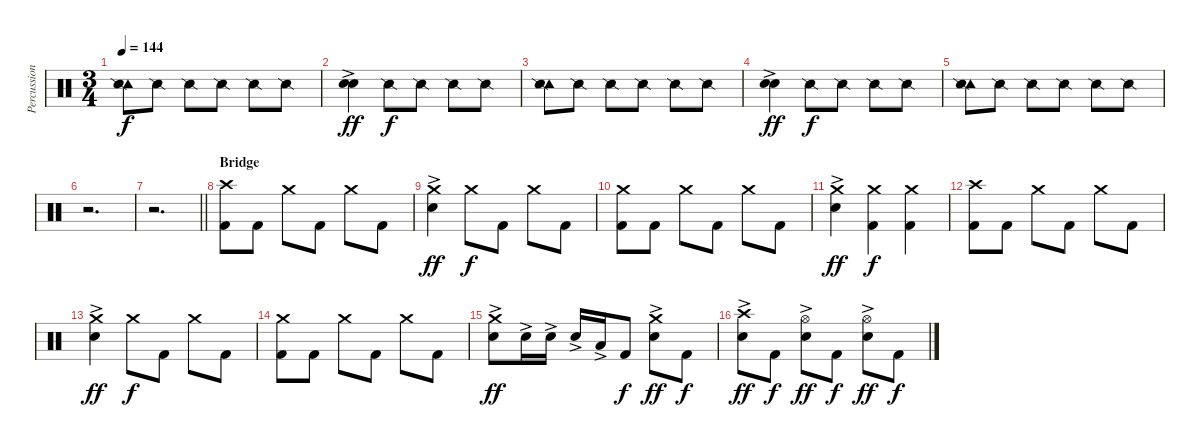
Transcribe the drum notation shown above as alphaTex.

\track ("Percussion" "Percussion") {instrument percussion}
\staff {score}
\articulation defaults
\ts (3 4)
\tempo 144
\clef neutral
\ks c
("Tambourine (hit)" "Snare (side stick) 2").8{dy f} "Snare (side stick) 2".8 "Snare (side stick) 2".8 "Snare (side stick) 2".8 "Snare (side stick) 2".8 "Snare (side stick) 2".8 |
("Electric Snare (hit)"{ac} "Electric Snare (hit)"{ac}).4{bu 120 dy ff} "Snare (side stick) 2".8{dy f} "Snare (side stick) 2".8 "Snare (side stick) 2".8 "Snare (side stick) 2".8 |
("Tambourine (hit)" "Snare (side stick) 2").8 "Snare (side stick) 2".8 "Snare (side stick) 2".8 "Snare (side stick) 2".8 "Snare (side stick) 2".8 "Snare (side stick) 2".8 |
("Electric Snare (hit)"{ac} "Electric Snare (hit)"{ac}).4{bu 120 dy ff} "Snare (side stick) 2".8{dy f} "Snare (side stick) 2".8 "Snare (side stick) 2".8 "Snare (side stick) 2".8 |
("Tambourine (hit)" "Snare (side stick) 2").8 "Snare (side stick) 2".8 "Snare (side stick) 2".8 "Snare (side stick) 2".8 "Snare (side stick) 2".8 "Snare (side stick) 2".8 |
r.2{d} |
\barLineRight lightlight
r.2{d} |
\section ("" "Bridge")
("Crash high (hit)" "Kick (hit) 2").8 "Kick (hit) 2".8 "Crash medium (hit)".8 "Kick (hit) 2".8 "Crash medium (hit)".8 "Kick (hit) 2".8 |
("Crash medium (hit)" "Electric Snare (hit)"{ac}).4{dy ff} "Crash medium (hit)".8{dy f} "Kick (hit) 2".8 "Crash medium (hit)".8 "Kick (hit) 2".8 |
("Crash medium (hit)" "Kick (hit) 2").8 "Kick (hit) 2".8 "Crash medium (hit)".8 "Kick (hit) 2".8 "Crash medium (hit)".8 "Kick (hit) 2".8 |
("Crash medium (hit)" "Electric Snare (hit)"{ac}).4{dy ff} ("Crash medium (hit)" "Kick (hit) 2").4{dy f} ("Crash medium (hit)" "Kick (hit) 2").4 |
("Crash high (hit)" "Kick (hit) 2").8 "Kick (hit) 2".8 "Crash medium (hit)".8 "Kick (hit) 2".8 "Crash medium (hit)".8 "Kick (hit) 2".8 |
("Crash medium (hit)" "Electric Snare (hit)"{ac}).4{dy ff} "Crash medium (hit)".8{dy f} "Kick (hit) 2".8 "Crash medium (hit)".8 "Kick (hit) 2".8 |
("Crash medium (hit)" "Kick (hit) 2").8 "Kick (hit) 2".8 "Crash medium (hit)".8 "Kick (hit) 2".8 "Crash medium (hit)".8 "Kick (hit) 2".8 |
("Crash medium (hit)" "Electric Snare (hit)"{ac}).8{dy ff} "Electric Snare (hit)"{ac}.16 "Electric Snare (hit)"{ac}.16 "Electric Snare (hit)"{ac}.16 "Low Tom (hit)"{ac}.16 "Kick (hit) 2".8{dy f} ("Crash medium (hit)" "Electric Snare (hit)"{ac}).8{dy ff} "Kick (hit) 2".8{dy f} |
("Crash high (hit)" "Electric Snare (hit)"{ac}).8{dy ff} "Kick (hit) 2".8{dy f} ("Hi-Hat (open)" "Electric Snare (hit)"{ac}).8{dy ff} "Kick (hit) 2".8{dy f} ("Hi-Hat (open)" "Electric Snare (hit)"{ac}).8{dy ff} "Kick (hit) 2".8{dy f}
